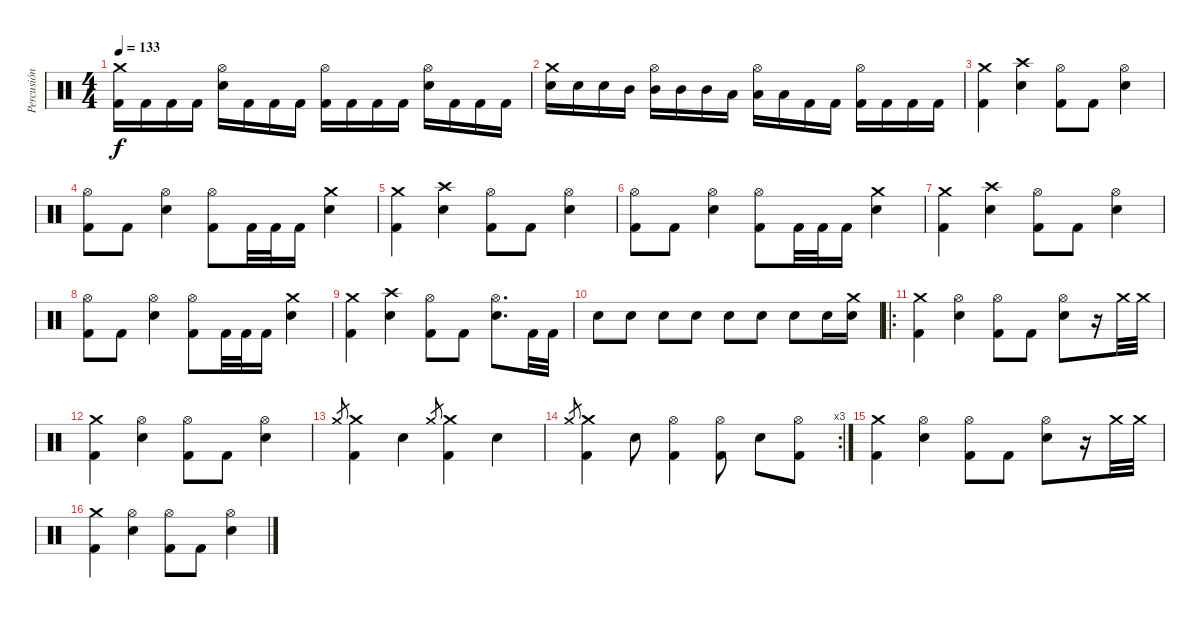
\track ("Percusión" "Percusión") {instrument percussion}
\staff {score}
\articulation defaults
\ts (4 4)
\tempo 133
\clef neutral
\ks c
("Crash medium (hit)" "Kick (hit) 2").16{dy f} "Kick (hit) 2".16 "Kick (hit) 2".16 "Kick (hit) 2".16 ("Hi-Hat (open)" "Snare (hit) 2").16 "Kick (hit) 2".16 "Kick (hit) 2".16 "Kick (hit) 2".16 ("Hi-Hat (open)" "Kick (hit) 2").16 "Kick (hit) 2".16 "Kick (hit) 2".16 "Kick (hit) 2".16 ("Hi-Hat (open)" "Snare (hit) 2").16 "Kick (hit) 2".16 "Kick (hit) 2".16 "Kick (hit) 2".16 |
("Crash medium (hit)" "Snare (hit) 2").16 "Snare (hit) 2".16 "Snare (hit) 2".16 "Mid Tom (hit)".16 ("Hi-Hat (open)" "Mid Tom (hit)").16 "Mid Tom (hit)".16 "Mid Tom (hit)".16 "Low Tom (hit)".16 ("Hi-Hat (open)" "Low Tom (hit)").16 "Low Tom (hit)".16 "Kick (hit) 2".16 "Kick (hit) 2".16 ("Hi-Hat (open)" "Kick (hit) 2").16 "Kick (hit) 2".16 "Kick (hit) 2".16 "Kick (hit) 2".16 |
("Crash medium (hit)" "Kick (hit) 2").4 ("Crash high (hit)" "Snare (hit) 2").4 ("Hi-Hat (open)" "Kick (hit) 2").8 "Kick (hit) 2".8 ("Hi-Hat (open)" "Snare (hit) 2").4 |
("Hi-Hat (open)" "Kick (hit) 2").8 "Kick (hit) 2".8 ("Hi-Hat (open)" "Snare (hit) 2").4 ("Hi-Hat (open)" "Kick (hit) 2").8 "Kick (hit) 2".32 "Kick (hit) 2".32 "Kick (hit) 2".16 ("Crash medium (hit)" "Snare (hit) 2").4 |
("Crash medium (hit)" "Kick (hit) 2").4 ("Crash high (hit)" "Snare (hit) 2").4 ("Hi-Hat (open)" "Kick (hit) 2").8 "Kick (hit) 2".8 ("Hi-Hat (open)" "Snare (hit) 2").4 |
("Hi-Hat (open)" "Kick (hit) 2").8 "Kick (hit) 2".8 ("Hi-Hat (open)" "Snare (hit) 2").4 ("Hi-Hat (open)" "Kick (hit) 2").8 "Kick (hit) 2".32 "Kick (hit) 2".32 "Kick (hit) 2".16 ("Crash medium (hit)" "Snare (hit) 2").4 |
("Crash medium (hit)" "Kick (hit) 2").4 ("Crash high (hit)" "Snare (hit) 2").4 ("Hi-Hat (open)" "Kick (hit) 2").8 "Kick (hit) 2".8 ("Hi-Hat (open)" "Snare (hit) 2").4 |
("Hi-Hat (open)" "Kick (hit) 2").8 "Kick (hit) 2".8 ("Hi-Hat (open)" "Snare (hit) 2").4 ("Hi-Hat (open)" "Kick (hit) 2").8 "Kick (hit) 2".32 "Kick (hit) 2".32 "Kick (hit) 2".16 ("Crash medium (hit)" "Snare (hit) 2").4 |
("Crash medium (hit)" "Kick (hit) 2").4 ("Crash high (hit)" "Snare (hit) 2").4 ("Hi-Hat (open)" "Kick (hit) 2").8 "Kick (hit) 2".8 ("Hi-Hat (open)" "Snare (hit) 2").8{d} "Kick (hit) 2".32 "Kick (hit) 2".32 |
"Snare (hit) 2".8 "Snare (hit) 2".8 "Snare (hit) 2".8 "Snare (hit) 2".8 "Snare (hit) 2".8 "Snare (hit) 2".8 "Snare (hit) 2".8 "Snare (hit) 2".16 ("Snare (hit) 2" "Crash medium (hit)").16 |
\ro
("Kick (hit) 2" "Crash medium (hit)").4 ("Snare (hit) 2" "Hi-Hat (open)").4 ("Kick (hit) 2" "Hi-Hat (open)").8 "Kick (hit) 2".8 ("Snare (hit) 2" "Hi-Hat (open)").8 r.16 "Crash medium (hit)".32 "Crash medium (hit)".32 |
("Crash medium (hit)" "Kick (hit) 2").4 ("Snare (hit) 2" "Hi-Hat (open)").4 ("Kick (hit) 2" "Hi-Hat (open)").8 "Kick (hit) 2".8 ("Snare (hit) 2" "Hi-Hat (open)").4 |
"Crash medium (hit)".8{gr} ("Kick (hit) 2" "Crash medium (hit)").4 "Snare (hit) 2".4 "Crash medium (hit)".8{gr} ("Kick (hit) 2" "Crash medium (hit)").4 "Snare (hit) 2".4 |
\rc 3 "Crash medium (hit)".8{gr}
("Kick (hit) 2" "Crash medium (hit)").4 "Snare (hit) 2".8 ("Kick (hit) 2" "Hi-Hat (open)").4 ("Kick (hit) 2" "Hi-Hat (open)").8 "Snare (hit) 2".8 ("Kick (hit) 2" "Hi-Hat (open)").8 |
("Kick (hit) 2" "Crash medium (hit)").4 ("Snare (hit) 2" "Hi-Hat (open)").4 ("Kick (hit) 2" "Hi-Hat (open)").8 "Kick (hit) 2".8 ("Snare (hit) 2" "Hi-Hat (open)").8 r.16 "Crash medium (hit)".32 "Crash medium (hit)".32 |
("Crash medium (hit)" "Kick (hit) 2").4 ("Snare (hit) 2" "Hi-Hat (open)").4 ("Kick (hit) 2" "Hi-Hat (open)").8 "Kick (hit) 2".8 ("Snare (hit) 2" "Hi-Hat (open)").4
